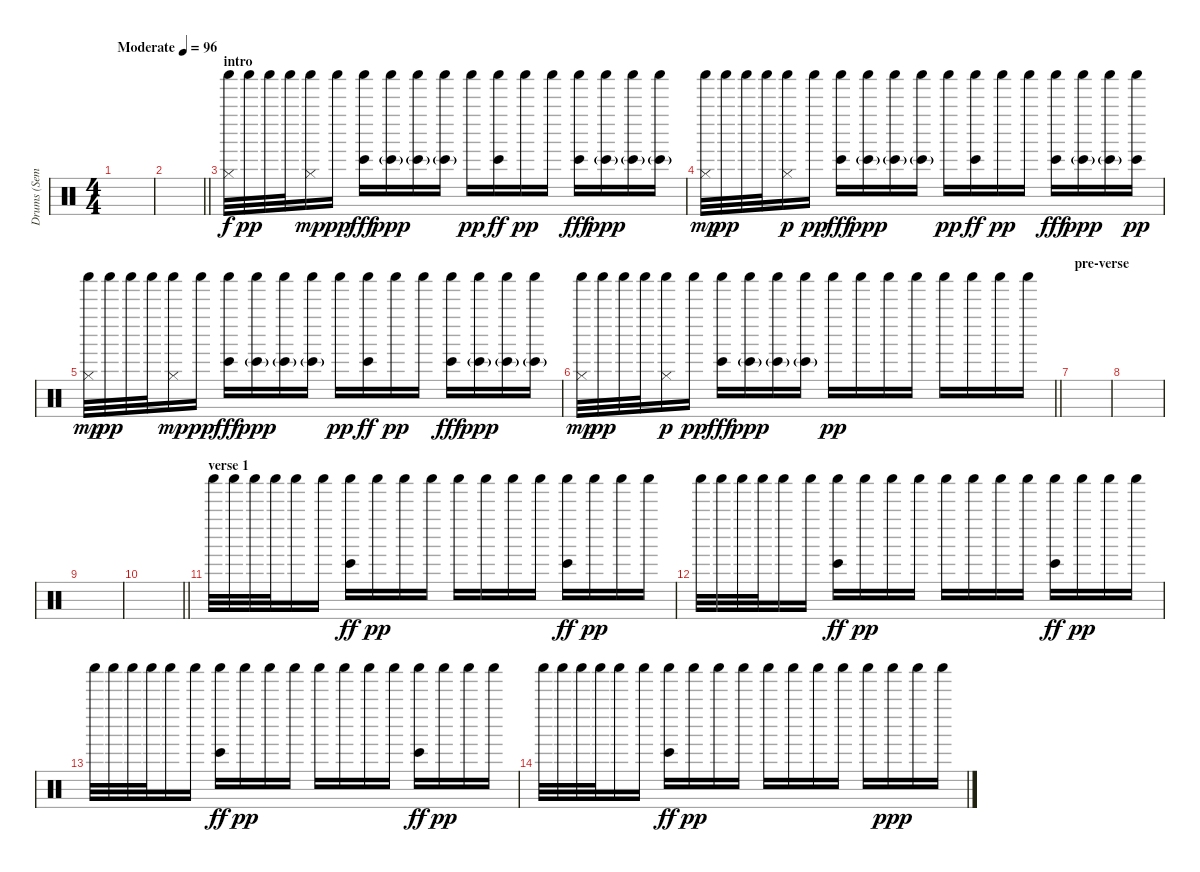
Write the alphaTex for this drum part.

\track ("Drums (Semple)" "Drums (Sem") {instrument percussion}
\staff {score}
\articulation defaults
\ts (4 4)
\tempo (96 "Moderate")
\clef neutral
\ks c
|
\barLineRight lightlight
|
\section ("" "intro")
("Shaker (hit)" "Hi-Hat (closed)").32 "Shaker (hit)".32{dy pp} "Shaker (hit)".32 "Shaker (hit)".32 ("Shaker (hit)" "Hi-Hat (closed)").16{dy mp} "Shaker (hit)".16{dy pp} ("Shaker (hit)" "Bongo High (hit)").16{dy fff} ("Shaker (hit)" "Bongo High (hit)"{g}).16{dy ppp} ("Shaker (hit)" "Bongo High (hit)"{g}).16 ("Shaker (hit)" "Bongo High (hit)"{g}).16 "Shaker (hit)".16{dy pp} ("Shaker (hit)" "Bongo High (hit)").16{dy ff} "Shaker (hit)".16{dy pp} "Shaker (hit)".16 ("Shaker (hit)" "Bongo High (hit)").16{dy fff} ("Shaker (hit)" "Bongo High (hit)"{g}).16{dy ppp} ("Shaker (hit)" "Bongo High (hit)"{g}).16 ("Shaker (hit)" "Bongo High (hit)"{g}).16 |
("Shaker (hit)" "Hi-Hat (closed)").32{dy mp} "Shaker (hit)".32{dy pp} "Shaker (hit)".32 "Shaker (hit)".32 ("Shaker (hit)" "Hi-Hat (closed)").16{dy p} "Shaker (hit)".16{dy pp} ("Shaker (hit)" "Bongo High (hit)").16{dy fff} ("Shaker (hit)" "Bongo High (hit)"{g}).16{dy ppp} ("Shaker (hit)" "Bongo High (hit)"{g}).16 ("Shaker (hit)" "Bongo High (hit)"{g}).16 "Shaker (hit)".16{dy pp} ("Shaker (hit)" "Bongo High (hit)").16{dy ff} "Shaker (hit)".16{dy pp} "Shaker (hit)".16 ("Shaker (hit)" "Bongo High (hit)").16{dy fff} ("Shaker (hit)" "Bongo High (hit)"{g}).16{dy ppp} ("Shaker (hit)" "Bongo High (hit)"{g}).16 ("Shaker (hit)" "Bongo High (hit)").16{dy pp} |
("Shaker (hit)" "Hi-Hat (closed)").32{dy mp} "Shaker (hit)".32{dy pp} "Shaker (hit)".32 "Shaker (hit)".32 ("Shaker (hit)" "Hi-Hat (closed)").16{dy mp} "Shaker (hit)".16{dy pp} ("Shaker (hit)" "Bongo High (hit)").16{dy fff} ("Shaker (hit)" "Bongo High (hit)"{g}).16{dy ppp} ("Shaker (hit)" "Bongo High (hit)"{g}).16 ("Shaker (hit)" "Bongo High (hit)"{g}).16 "Shaker (hit)".16{dy pp} ("Shaker (hit)" "Bongo High (hit)").16{dy ff} "Shaker (hit)".16{dy pp} "Shaker (hit)".16 ("Shaker (hit)" "Bongo High (hit)").16{dy fff} ("Shaker (hit)" "Bongo High (hit)"{g}).16{dy ppp} ("Shaker (hit)" "Bongo High (hit)"{g}).16 ("Shaker (hit)" "Bongo High (hit)"{g}).16 |
\barLineRight lightlight
("Shaker (hit)" "Hi-Hat (closed)").32{dy mp} "Shaker (hit)".32{dy pp} "Shaker (hit)".32 "Shaker (hit)".32 ("Shaker (hit)" "Hi-Hat (closed)").16{dy p} "Shaker (hit)".16{dy pp} ("Shaker (hit)" "Bongo High (hit)").16{dy fff} ("Shaker (hit)" "Bongo High (hit)"{g}).16{dy ppp} ("Shaker (hit)" "Bongo High (hit)"{g}).16 ("Shaker (hit)" "Bongo High (hit)"{g}).16 "Shaker (hit)".16{dy pp} "Shaker (hit)".16 "Shaker (hit)".16 "Shaker (hit)".16 "Shaker (hit)".16 "Shaker (hit)".16 "Shaker (hit)".16 "Shaker (hit)".16 |
\section ("" "pre-verse")
|
|
|
\barLineRight lightlight
|
\section ("" "verse 1")
"Shaker (hit)".32 "Shaker (hit)".32 "Shaker (hit)".32 "Shaker (hit)".32 "Shaker (hit)".16 "Shaker (hit)".16 ("Shaker (hit)" "Bongo High (hit)").16{dy ff} "Shaker (hit)".16{dy pp} "Shaker (hit)".16 "Shaker (hit)".16 "Shaker (hit)".16 "Shaker (hit)".16 "Shaker (hit)".16 "Shaker (hit)".16 ("Shaker (hit)" "Bongo High (hit)").16{dy ff} "Shaker (hit)".16{dy pp} "Shaker (hit)".16 "Shaker (hit)".16 |
"Shaker (hit)".32 "Shaker (hit)".32 "Shaker (hit)".32 "Shaker (hit)".32 "Shaker (hit)".16 "Shaker (hit)".16 ("Shaker (hit)" "Bongo High (hit)").16{dy ff} "Shaker (hit)".16{dy pp} "Shaker (hit)".16 "Shaker (hit)".16 "Shaker (hit)".16 "Shaker (hit)".16 "Shaker (hit)".16 "Shaker (hit)".16 ("Shaker (hit)" "Bongo High (hit)").16{dy ff} "Shaker (hit)".16{dy pp} "Shaker (hit)".16 "Shaker (hit)".16 |
"Shaker (hit)".32 "Shaker (hit)".32 "Shaker (hit)".32 "Shaker (hit)".32 "Shaker (hit)".16 "Shaker (hit)".16 ("Shaker (hit)" "Bongo High (hit)").16{dy ff} "Shaker (hit)".16{dy pp} "Shaker (hit)".16 "Shaker (hit)".16 "Shaker (hit)".16 "Shaker (hit)".16 "Shaker (hit)".16 "Shaker (hit)".16 ("Shaker (hit)" "Bongo High (hit)").16{dy ff} "Shaker (hit)".16{dy pp} "Shaker (hit)".16 "Shaker (hit)".16 |
"Shaker (hit)".32 "Shaker (hit)".32 "Shaker (hit)".32 "Shaker (hit)".32 "Shaker (hit)".16 "Shaker (hit)".16 ("Shaker (hit)" "Bongo High (hit)").16{dy ff} "Shaker (hit)".16{dy pp} "Shaker (hit)".16 "Shaker (hit)".16 "Shaker (hit)".16 "Shaker (hit)".16 "Shaker (hit)".16 "Shaker (hit)".16 "Shaker (hit)".16 "Shaker (hit)".16{dy ppp} "Shaker (hit)".16 "Shaker (hit)".16
